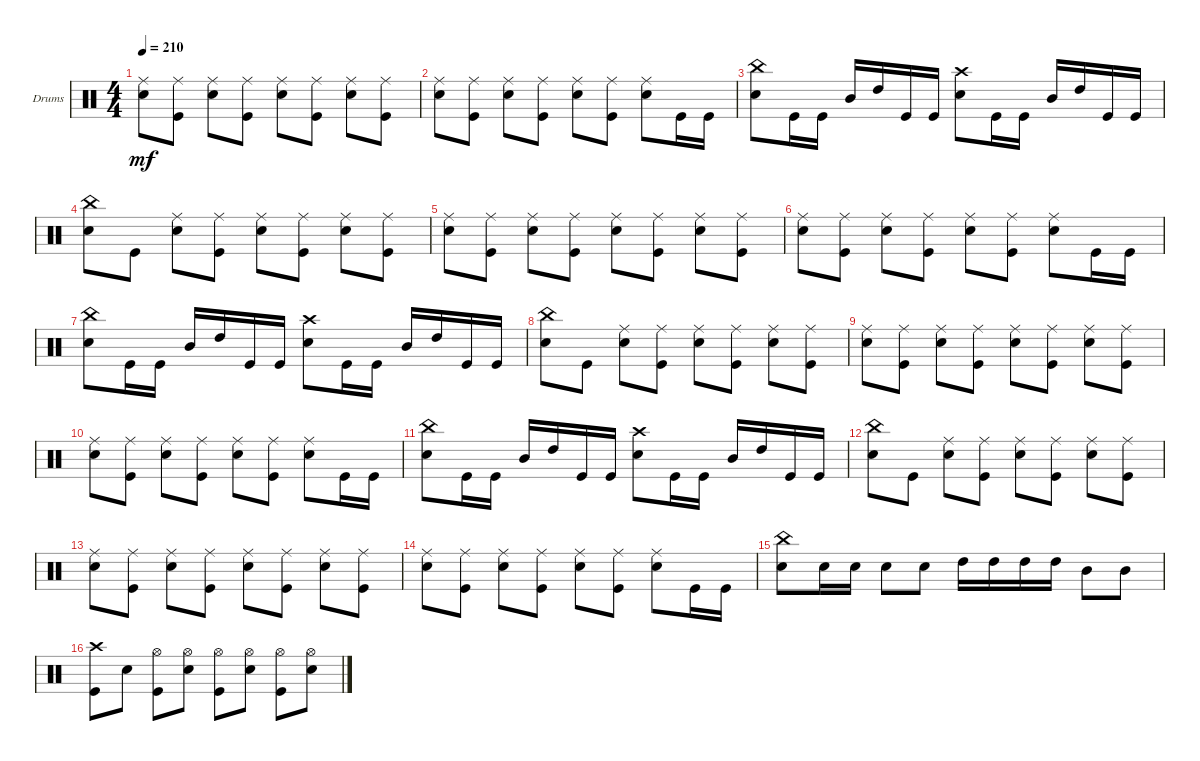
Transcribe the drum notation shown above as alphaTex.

\bracketExtendMode groupsimilarinstruments
\firstSystemTrackNameOrientation horizontal
\otherSystemsTrackNameOrientation horizontal
\track ("Drumkit" "Drums") {instrument percussion}
\staff {score}
\articulation defaults
\ts (4 4)
\tempo 210
\clef neutral
\ks c
("Ride (middle)" "Snare (hit) 2").8{dy mf} ("Ride (middle)" "Kick (hit)").8 ("Ride (middle)" "Snare (hit) 2").8 ("Ride (middle)" "Kick (hit)").8 ("Ride (middle)" "Snare (hit) 2").8 ("Ride (middle)" "Kick (hit)").8 ("Ride (middle)" "Snare (hit) 2").8 ("Ride (middle)" "Kick (hit)").8 |
("Ride (middle)" "Snare (hit) 2").8 ("Ride (middle)" "Kick (hit)").8 ("Ride (middle)" "Snare (hit) 2").8 ("Ride (middle)" "Kick (hit)").8 ("Ride (middle)" "Snare (hit) 2").8 ("Ride (middle)" "Kick (hit)").8 ("Ride (middle)" "Snare (hit) 2").8 "Kick (hit)".16 "Kick (hit)".16 |
("Snare (hit) 2" "China (hit)").8 "Kick (hit)".16 "Kick (hit)".16 "Mid Tom (hit)".16 "High Tom (hit)".16 "Kick (hit)".16 "Kick (hit)".16 ("Snare (hit) 2" "Crash high (hit)").8 "Kick (hit)".16 "Kick (hit)".16 "Mid Tom (hit)".16 "High Tom (hit)".16 "Kick (hit)".16 "Kick (hit)".16 |
("Snare (hit) 2" "China (hit)").8 "Kick (hit)".8 ("Ride (middle)" "Snare (hit) 2").8 ("Ride (middle)" "Kick (hit)").8 ("Ride (middle)" "Snare (hit) 2").8 ("Ride (middle)" "Kick (hit)").8 ("Ride (middle)" "Snare (hit) 2").8 ("Ride (middle)" "Kick (hit)").8 |
("Ride (middle)" "Snare (hit) 2").8 ("Ride (middle)" "Kick (hit)").8 ("Ride (middle)" "Snare (hit) 2").8 ("Ride (middle)" "Kick (hit)").8 ("Ride (middle)" "Snare (hit) 2").8 ("Ride (middle)" "Kick (hit)").8 ("Ride (middle)" "Snare (hit) 2").8 ("Ride (middle)" "Kick (hit)").8 |
("Ride (middle)" "Snare (hit) 2").8 ("Ride (middle)" "Kick (hit)").8 ("Ride (middle)" "Snare (hit) 2").8 ("Ride (middle)" "Kick (hit)").8 ("Ride (middle)" "Snare (hit) 2").8 ("Ride (middle)" "Kick (hit)").8 ("Ride (middle)" "Snare (hit) 2").8 "Kick (hit)".16 "Kick (hit)".16 |
("Snare (hit) 2" "China (hit)").8 "Kick (hit)".16 "Kick (hit)".16 "Mid Tom (hit)".16 "High Tom (hit)".16 "Kick (hit)".16 "Kick (hit)".16 ("Snare (hit) 2" "Crash high (hit)").8 "Kick (hit)".16 "Kick (hit)".16 "Mid Tom (hit)".16 "High Tom (hit)".16 "Kick (hit)".16 "Kick (hit)".16 |
("Snare (hit) 2" "China (hit)").8 "Kick (hit)".8 ("Ride (middle)" "Snare (hit) 2").8 ("Ride (middle)" "Kick (hit)").8 ("Ride (middle)" "Snare (hit) 2").8 ("Ride (middle)" "Kick (hit)").8 ("Ride (middle)" "Snare (hit) 2").8 ("Ride (middle)" "Kick (hit)").8 |
("Ride (middle)" "Snare (hit) 2").8 ("Ride (middle)" "Kick (hit)").8 ("Ride (middle)" "Snare (hit) 2").8 ("Ride (middle)" "Kick (hit)").8 ("Ride (middle)" "Snare (hit) 2").8 ("Ride (middle)" "Kick (hit)").8 ("Ride (middle)" "Snare (hit) 2").8 ("Ride (middle)" "Kick (hit)").8 |
("Ride (middle)" "Snare (hit) 2").8 ("Ride (middle)" "Kick (hit)").8 ("Ride (middle)" "Snare (hit) 2").8 ("Ride (middle)" "Kick (hit)").8 ("Ride (middle)" "Snare (hit) 2").8 ("Ride (middle)" "Kick (hit)").8 ("Ride (middle)" "Snare (hit) 2").8 "Kick (hit)".16 "Kick (hit)".16 |
("Snare (hit) 2" "China (hit)").8 "Kick (hit)".16 "Kick (hit)".16 "Mid Tom (hit)".16 "High Tom (hit)".16 "Kick (hit)".16 "Kick (hit)".16 ("Snare (hit) 2" "Crash high (hit)").8 "Kick (hit)".16 "Kick (hit)".16 "Mid Tom (hit)".16 "High Tom (hit)".16 "Kick (hit)".16 "Kick (hit)".16 |
("Snare (hit) 2" "China (hit)").8 "Kick (hit)".8 ("Ride (middle)" "Snare (hit) 2").8 ("Ride (middle)" "Kick (hit)").8 ("Ride (middle)" "Snare (hit) 2").8 ("Ride (middle)" "Kick (hit)").8 ("Ride (middle)" "Snare (hit) 2").8 ("Ride (middle)" "Kick (hit)").8 |
("Ride (middle)" "Snare (hit) 2").8 ("Ride (middle)" "Kick (hit)").8 ("Ride (middle)" "Snare (hit) 2").8 ("Ride (middle)" "Kick (hit)").8 ("Ride (middle)" "Snare (hit) 2").8 ("Ride (middle)" "Kick (hit)").8 ("Ride (middle)" "Snare (hit) 2").8 ("Ride (middle)" "Kick (hit)").8 |
("Ride (middle)" "Snare (hit) 2").8 ("Ride (middle)" "Kick (hit)").8 ("Ride (middle)" "Snare (hit) 2").8 ("Ride (middle)" "Kick (hit)").8 ("Ride (middle)" "Snare (hit) 2").8 ("Ride (middle)" "Kick (hit)").8 ("Ride (middle)" "Snare (hit) 2").8 "Kick (hit)".16 "Kick (hit)".16 |
("Snare (hit) 2" "China (hit)").8 "Snare (hit) 2".16 "Snare (hit) 2".16 "Snare (hit) 2".8 "Snare (hit) 2".8 "High Tom (hit)".16 "High Tom (hit)".16 "High Tom (hit)".16 "High Tom (hit)".16 "Mid Tom (hit)".8 "Mid Tom (hit)".8 |
("Kick (hit)" "Crash high (hit)").8 "Snare (hit) 2".8 ("Hi-Hat (open)" "Kick (hit)").8 ("Hi-Hat (open)" "Snare (hit) 2").8 ("Hi-Hat (open)" "Kick (hit)").8 ("Hi-Hat (open)" "Snare (hit) 2").8 ("Hi-Hat (open)" "Kick (hit)").8 ("Hi-Hat (open)" "Snare (hit) 2").8
